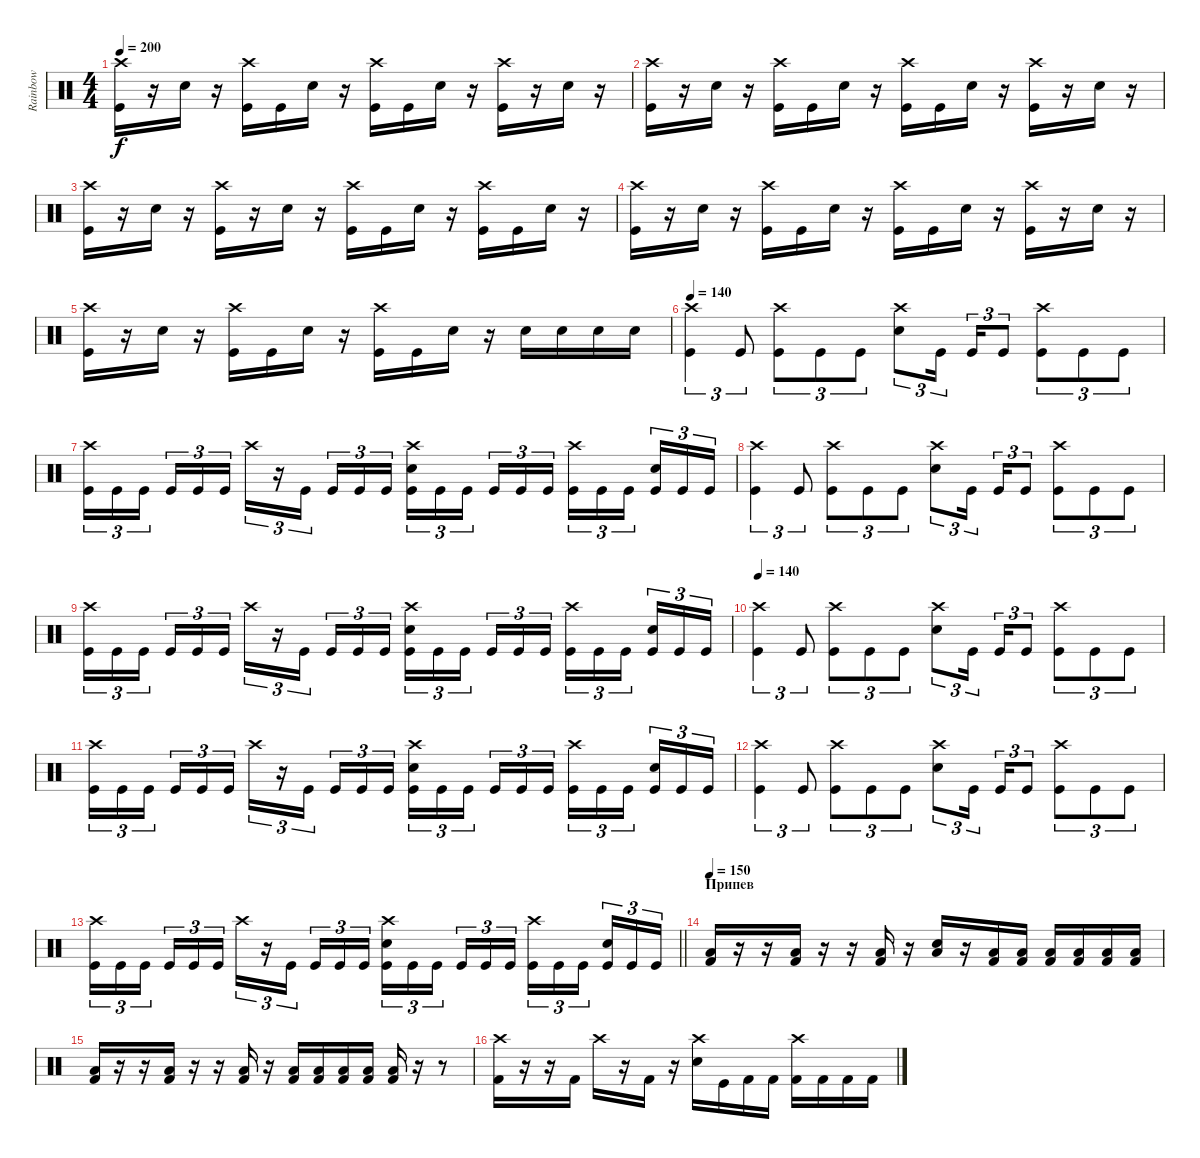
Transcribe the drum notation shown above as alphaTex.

\track ("Rainbow" "Rainbow") {instrument percussion}
\staff {score}
\articulation defaults
\ts (4 4)
\tempo 200
\clef neutral
\ks c
("Crash high (hit)" "Kick (hit)").16{dy f} r.16 "Electric Snare (hit)".16 r.16 ("Crash high (hit)" "Kick (hit)").16 "Kick (hit)".16 "Electric Snare (hit)".16 r.16 ("Crash high (hit)" "Kick (hit)").16 "Kick (hit)".16 "Electric Snare (hit)".16 r.16 ("Crash high (hit)" "Kick (hit)").16 r.16 "Electric Snare (hit)".16 r.16 |
("Crash high (hit)" "Kick (hit)").16 r.16 "Electric Snare (hit)".16 r.16 ("Crash high (hit)" "Kick (hit)").16 "Kick (hit)".16 "Electric Snare (hit)".16 r.16 ("Crash high (hit)" "Kick (hit)").16 "Kick (hit)".16 "Electric Snare (hit)".16 r.16 ("Crash high (hit)" "Kick (hit)").16 r.16 "Electric Snare (hit)".16 r.16 |
("Crash high (hit)" "Kick (hit)").16 r.16 "Electric Snare (hit)".16 r.16 ("Crash high (hit)" "Kick (hit)").16 r.16 "Electric Snare (hit)".16 r.16 ("Crash high (hit)" "Kick (hit)").16 "Kick (hit)".16 "Electric Snare (hit)".16 r.16 ("Crash high (hit)" "Kick (hit)").16 "Kick (hit)".16 "Electric Snare (hit)".16 r.16 |
("Crash high (hit)" "Kick (hit)").16 r.16 "Electric Snare (hit)".16 r.16 ("Crash high (hit)" "Kick (hit)").16 "Kick (hit)".16 "Electric Snare (hit)".16 r.16 ("Crash high (hit)" "Kick (hit)").16 "Kick (hit)".16 "Electric Snare (hit)".16 r.16 ("Crash high (hit)" "Kick (hit)").16 r.16 "Electric Snare (hit)".16 r.16 |
("Crash high (hit)" "Kick (hit)").16 r.16 "Electric Snare (hit)".16 r.16 ("Crash high (hit)" "Kick (hit)").16 "Kick (hit)".16 "Electric Snare (hit)".16 r.16 ("Crash high (hit)" "Kick (hit)").16 "Kick (hit)".16 "Electric Snare (hit)".16 r.16 "Electric Snare (hit)".16 "Electric Snare (hit)".16 "Electric Snare (hit)".16 "Electric Snare (hit)".16 |
\tempo 140
("Crash high (hit)" "Kick (hit)").4{tu (3 2)} "Kick (hit)".8{tu (3 2)} ("Crash high (hit)" "Kick (hit)").8{tu (3 2)} "Kick (hit)".8{tu (3 2)} "Kick (hit)".8{tu (3 2)} ("Crash high (hit)" "Electric Snare (hit)").8{tu (3 2)} "Kick (hit)".16{tu (3 2) beam splitsecondary} "Kick (hit)".16{tu (3 2)} "Kick (hit)".8{tu (3 2)} ("Crash high (hit)" "Kick (hit)").8{tu (3 2)} "Kick (hit)".8{tu (3 2)} "Kick (hit)".8{tu (3 2)} |
("Crash high (hit)" "Kick (hit)").16{tu (3 2)} "Kick (hit)".16{tu (3 2)} "Kick (hit)".16{tu (3 2) beam splitsecondary} "Kick (hit)".16{tu (3 2)} "Kick (hit)".16{tu (3 2)} "Kick (hit)".16{tu (3 2)} "Crash high (hit)".16{tu (3 2)} r.16{tu (3 2)} "Kick (hit)".16{tu (3 2) beam splitsecondary} "Kick (hit)".16{tu (3 2)} "Kick (hit)".16{tu (3 2)} "Kick (hit)".16{tu (3 2)} ("Crash high (hit)" "Electric Snare (hit)" "Kick (hit)").16{tu (3 2)} "Kick (hit)".16{tu (3 2)} "Kick (hit)".16{tu (3 2) beam splitsecondary} "Kick (hit)".16{tu (3 2)} "Kick (hit)".16{tu (3 2)} "Kick (hit)".16{tu (3 2)} ("Crash high (hit)" "Kick (hit)").16{tu (3 2)} "Kick (hit)".16{tu (3 2)} "Kick (hit)".16{tu (3 2) beam splitsecondary} ("Electric Snare (hit)" "Kick (hit)").16{tu (3 2)} "Kick (hit)".16{tu (3 2)} "Kick (hit)".16{tu (3 2)} |
("Crash high (hit)" "Kick (hit)").4{tu (3 2)} "Kick (hit)".8{tu (3 2)} ("Crash high (hit)" "Kick (hit)").8{tu (3 2)} "Kick (hit)".8{tu (3 2)} "Kick (hit)".8{tu (3 2)} ("Crash high (hit)" "Electric Snare (hit)").8{tu (3 2)} "Kick (hit)".16{tu (3 2) beam splitsecondary} "Kick (hit)".16{tu (3 2)} "Kick (hit)".8{tu (3 2)} ("Crash high (hit)" "Kick (hit)").8{tu (3 2)} "Kick (hit)".8{tu (3 2)} "Kick (hit)".8{tu (3 2)} |
("Crash high (hit)" "Kick (hit)").16{tu (3 2)} "Kick (hit)".16{tu (3 2)} "Kick (hit)".16{tu (3 2) beam splitsecondary} "Kick (hit)".16{tu (3 2)} "Kick (hit)".16{tu (3 2)} "Kick (hit)".16{tu (3 2)} "Crash high (hit)".16{tu (3 2)} r.16{tu (3 2)} "Kick (hit)".16{tu (3 2) beam splitsecondary} "Kick (hit)".16{tu (3 2)} "Kick (hit)".16{tu (3 2)} "Kick (hit)".16{tu (3 2)} ("Crash high (hit)" "Electric Snare (hit)" "Kick (hit)").16{tu (3 2)} "Kick (hit)".16{tu (3 2)} "Kick (hit)".16{tu (3 2) beam splitsecondary} "Kick (hit)".16{tu (3 2)} "Kick (hit)".16{tu (3 2)} "Kick (hit)".16{tu (3 2)} ("Crash high (hit)" "Kick (hit)").16{tu (3 2)} "Kick (hit)".16{tu (3 2)} "Kick (hit)".16{tu (3 2) beam splitsecondary} ("Electric Snare (hit)" "Kick (hit)").16{tu (3 2)} "Kick (hit)".16{tu (3 2)} "Kick (hit)".16{tu (3 2)} |
\tempo 140
("Crash high (hit)" "Kick (hit)").4{tu (3 2)} "Kick (hit)".8{tu (3 2)} ("Crash high (hit)" "Kick (hit)").8{tu (3 2)} "Kick (hit)".8{tu (3 2)} "Kick (hit)".8{tu (3 2)} ("Crash high (hit)" "Electric Snare (hit)").8{tu (3 2)} "Kick (hit)".16{tu (3 2) beam splitsecondary} "Kick (hit)".16{tu (3 2)} "Kick (hit)".8{tu (3 2)} ("Crash high (hit)" "Kick (hit)").8{tu (3 2)} "Kick (hit)".8{tu (3 2)} "Kick (hit)".8{tu (3 2)} |
("Crash high (hit)" "Kick (hit)").16{tu (3 2)} "Kick (hit)".16{tu (3 2)} "Kick (hit)".16{tu (3 2) beam splitsecondary} "Kick (hit)".16{tu (3 2)} "Kick (hit)".16{tu (3 2)} "Kick (hit)".16{tu (3 2)} "Crash high (hit)".16{tu (3 2)} r.16{tu (3 2)} "Kick (hit)".16{tu (3 2) beam splitsecondary} "Kick (hit)".16{tu (3 2)} "Kick (hit)".16{tu (3 2)} "Kick (hit)".16{tu (3 2)} ("Crash high (hit)" "Electric Snare (hit)" "Kick (hit)").16{tu (3 2)} "Kick (hit)".16{tu (3 2)} "Kick (hit)".16{tu (3 2) beam splitsecondary} "Kick (hit)".16{tu (3 2)} "Kick (hit)".16{tu (3 2)} "Kick (hit)".16{tu (3 2)} ("Crash high (hit)" "Kick (hit)").16{tu (3 2)} "Kick (hit)".16{tu (3 2)} "Kick (hit)".16{tu (3 2) beam splitsecondary} ("Electric Snare (hit)" "Kick (hit)").16{tu (3 2)} "Kick (hit)".16{tu (3 2)} "Kick (hit)".16{tu (3 2)} |
("Crash high (hit)" "Kick (hit)").4{tu (3 2)} "Kick (hit)".8{tu (3 2)} ("Crash high (hit)" "Kick (hit)").8{tu (3 2)} "Kick (hit)".8{tu (3 2)} "Kick (hit)".8{tu (3 2)} ("Crash high (hit)" "Electric Snare (hit)").8{tu (3 2)} "Kick (hit)".16{tu (3 2) beam splitsecondary} "Kick (hit)".16{tu (3 2)} "Kick (hit)".8{tu (3 2)} ("Crash high (hit)" "Kick (hit)").8{tu (3 2)} "Kick (hit)".8{tu (3 2)} "Kick (hit)".8{tu (3 2)} |
\barLineRight lightlight
("Crash high (hit)" "Kick (hit)").16{tu (3 2)} "Kick (hit)".16{tu (3 2)} "Kick (hit)".16{tu (3 2) beam splitsecondary} "Kick (hit)".16{tu (3 2)} "Kick (hit)".16{tu (3 2)} "Kick (hit)".16{tu (3 2)} "Crash high (hit)".16{tu (3 2)} r.16{tu (3 2)} "Kick (hit)".16{tu (3 2) beam splitsecondary} "Kick (hit)".16{tu (3 2)} "Kick (hit)".16{tu (3 2)} "Kick (hit)".16{tu (3 2)} ("Crash high (hit)" "Electric Snare (hit)" "Kick (hit)").16{tu (3 2)} "Kick (hit)".16{tu (3 2)} "Kick (hit)".16{tu (3 2) beam splitsecondary} "Kick (hit)".16{tu (3 2)} "Kick (hit)".16{tu (3 2)} "Kick (hit)".16{tu (3 2)} ("Crash high (hit)" "Kick (hit)").16{tu (3 2)} "Kick (hit)".16{tu (3 2)} "Kick (hit)".16{tu (3 2) beam splitsecondary} ("Electric Snare (hit)" "Kick (hit)").16{tu (3 2)} "Kick (hit)".16{tu (3 2)} "Kick (hit)".16{tu (3 2)} |
\section ("" "Припев")
\tempo 150
("Low Floor Tom (hit)" "Kick (hit) 2").16 r.16 r.16 ("Low Floor Tom (hit)" "Kick (hit) 2").16 r.16 r.16 ("Low Floor Tom (hit)" "Kick (hit) 2").16 r.16 ("Low Floor Tom (hit)" "Electric Snare (hit)").16 r.16 ("Low Floor Tom (hit)" "Kick (hit) 2").16 ("Low Floor Tom (hit)" "Kick (hit) 2").16 ("Low Floor Tom (hit)" "Kick (hit) 2").16 ("Low Floor Tom (hit)" "Kick (hit) 2").16 ("Low Floor Tom (hit)" "Kick (hit) 2").16 ("Low Floor Tom (hit)" "Kick (hit) 2").16 |
("Low Floor Tom (hit)" "Kick (hit) 2").16 r.16 r.16 ("Low Floor Tom (hit)" "Kick (hit) 2").16 r.16 r.16 ("Low Floor Tom (hit)" "Kick (hit) 2").16 r.16 ("Low Floor Tom (hit)" "Kick (hit) 2").16 ("Low Floor Tom (hit)" "Kick (hit) 2").16 ("Low Floor Tom (hit)" "Kick (hit) 2").16 ("Low Floor Tom (hit)" "Kick (hit) 2").16 ("Low Floor Tom (hit)" "Kick (hit) 2").16 r.16 r.8 |
("Crash high (hit)" "Kick (hit) 2").16 r.16 r.16 "Kick (hit) 2".16 "Crash high (hit)".16 r.16 "Kick (hit) 2".16 r.16 ("Crash high (hit)" "Electric Snare (hit)").16 "Kick (hit)".16 "Kick (hit) 2".16 "Kick (hit) 2".16 ("Crash high (hit)" "Kick (hit) 2").16 "Kick (hit) 2".16 "Kick (hit) 2".16 "Kick (hit) 2".16
